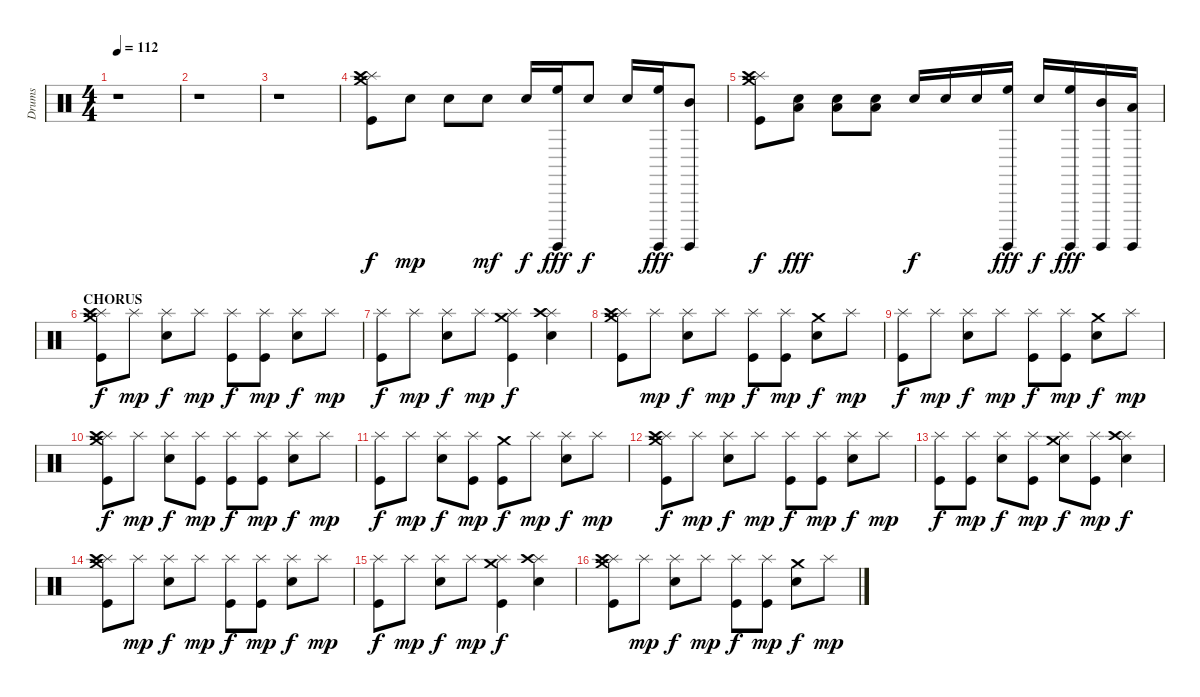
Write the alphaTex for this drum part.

\track ("Drums" "Drums") {instrument percussion}
\staff {score}
\articulation defaults
\ts (4 4)
\tempo 112
\clef neutral
\ks c
r.1{dy mp} |
r.1 |
r.1 |
("Crash medium (hit)" "Splash (hit)" "Crash high (hit)" "Kick (hit)").8{dy f} "Electric Snare (hit)".8{dy mp} "Electric Snare (hit)".8 "Electric Snare (hit)".8{dy mf} "Electric Snare (hit)".16{dy f} ("Surdo (hit)" "High Floor Tom (hit)").16{dy fff} "Electric Snare (hit)".8{dy f} "Electric Snare (hit)".16 ("Surdo (hit)" "High Floor Tom (hit)").16{dy fff} ("Surdo (hit)" "Mid Tom (hit)").8 |
("Crash medium (hit)" "Splash (hit)" "Crash high (hit)" "Kick (hit)").8{dy f} ("Low Floor Tom (hit)" "Electric Snare (hit)").8{dy fff} ("Low Floor Tom (hit)" "Electric Snare (hit)").8 ("Low Floor Tom (hit)" "Electric Snare (hit)").8 "Electric Snare (hit)".16{dy f} "Electric Snare (hit)".16 "Electric Snare (hit)".16 ("Surdo (hit)" "High Floor Tom (hit)").16{dy fff} "Electric Snare (hit)".16{dy f} ("Surdo (hit)" "High Floor Tom (hit)").16{dy fff} ("Surdo (hit)" "Mid Tom (hit)").16 ("Surdo (hit)" "Low Tom (hit)").16 |
\section ("" "CHORUS")
("Crash medium (hit)" "Splash (hit)" "Crash high (hit)" "Kick (hit)").8{dy f} "Splash (hit)".8{dy mp} ("Splash (hit)" "Electric Snare (hit)").8{dy f} "Splash (hit)".8{dy mp} ("Splash (hit)" "Kick (hit)").8{dy f} ("Splash (hit)" "Kick (hit)").8{dy mp} ("Splash (hit)" "Electric Snare (hit)").8{dy f} "Splash (hit)".8{dy mp} |
("Splash (hit)" "Kick (hit)").8{dy f} "Splash (hit)".8{dy mp} ("Splash (hit)" "Electric Snare (hit)").8{dy f} "Splash (hit)".8{dy mp} ("Crash medium (hit)" "Splash (hit)" "Kick (hit)").4{dy f} ("Splash (hit)" "Crash high (hit)" "Electric Snare (hit)").4 |
("Crash medium (hit)" "Splash (hit)" "Crash high (hit)" "Kick (hit)").8 "Splash (hit)".8{dy mp} ("Splash (hit)" "Electric Snare (hit)").8{dy f} "Splash (hit)".8{dy mp} ("Splash (hit)" "Kick (hit)").8{dy f} ("Splash (hit)" "Kick (hit)").8{dy mp} ("Crash medium (hit)" "Electric Snare (hit)").8{dy f} "Splash (hit)".8{dy mp} |
("Splash (hit)" "Kick (hit)").8{dy f} "Splash (hit)".8{dy mp} ("Splash (hit)" "Electric Snare (hit)").8{dy f} "Splash (hit)".8{dy mp} ("Splash (hit)" "Kick (hit)").8{dy f} ("Splash (hit)" "Kick (hit)").8{dy mp} ("Crash medium (hit)" "Electric Snare (hit)").8{dy f} "Splash (hit)".8{dy mp} |
("Crash medium (hit)" "Splash (hit)" "Crash high (hit)" "Kick (hit)").8{dy f} "Splash (hit)".8{dy mp} ("Splash (hit)" "Electric Snare (hit)").8{dy f} ("Splash (hit)" "Kick (hit)").8{dy mp} ("Splash (hit)" "Kick (hit)").8{dy f} ("Splash (hit)" "Kick (hit)").8{dy mp} ("Splash (hit)" "Electric Snare (hit)").8{dy f} "Splash (hit)".8{dy mp} |
("Splash (hit)" "Kick (hit)").8{dy f} "Splash (hit)".8{dy mp} ("Splash (hit)" "Electric Snare (hit)").8{dy f} ("Splash (hit)" "Kick (hit)").8{dy mp} ("Crash medium (hit)" "Kick (hit)").8{dy f} "Splash (hit)".8{dy mp} ("Splash (hit)" "Electric Snare (hit)").8{dy f} "Splash (hit)".8{dy mp} |
("Crash medium (hit)" "Splash (hit)" "Crash high (hit)" "Kick (hit)").8{dy f} "Splash (hit)".8{dy mp} ("Splash (hit)" "Electric Snare (hit)").8{dy f} "Splash (hit)".8{dy mp} ("Splash (hit)" "Kick (hit)").8{dy f} ("Splash (hit)" "Kick (hit)").8{dy mp} ("Splash (hit)" "Electric Snare (hit)").8{dy f} "Splash (hit)".8{dy mp} |
("Splash (hit)" "Kick (hit)").8{dy f} ("Splash (hit)" "Kick (hit)").8{dy mp} ("Splash (hit)" "Electric Snare (hit)").8{dy f} ("Splash (hit)" "Kick (hit)").8{dy mp} ("Crash medium (hit)" "Splash (hit)" "Electric Snare (hit)").8{dy f} ("Splash (hit)" "Kick (hit)").8{dy mp} ("Splash (hit)" "Crash high (hit)" "Electric Snare (hit)").4{dy f} |
("Crash medium (hit)" "Splash (hit)" "Crash high (hit)" "Kick (hit)").8 "Splash (hit)".8{dy mp} ("Splash (hit)" "Electric Snare (hit)").8{dy f} "Splash (hit)".8{dy mp} ("Splash (hit)" "Kick (hit)").8{dy f} ("Splash (hit)" "Kick (hit)").8{dy mp} ("Splash (hit)" "Electric Snare (hit)").8{dy f} "Splash (hit)".8{dy mp} |
("Splash (hit)" "Kick (hit)").8{dy f} "Splash (hit)".8{dy mp} ("Splash (hit)" "Electric Snare (hit)").8{dy f} "Splash (hit)".8{dy mp} ("Crash medium (hit)" "Splash (hit)" "Kick (hit)").4{dy f} ("Splash (hit)" "Crash high (hit)" "Electric Snare (hit)").4 |
("Crash medium (hit)" "Splash (hit)" "Crash high (hit)" "Kick (hit)").8 "Splash (hit)".8{dy mp} ("Splash (hit)" "Electric Snare (hit)").8{dy f} "Splash (hit)".8{dy mp} ("Splash (hit)" "Kick (hit)").8{dy f} ("Splash (hit)" "Kick (hit)").8{dy mp} ("Crash medium (hit)" "Electric Snare (hit)").8{dy f} "Splash (hit)".8{dy mp}
